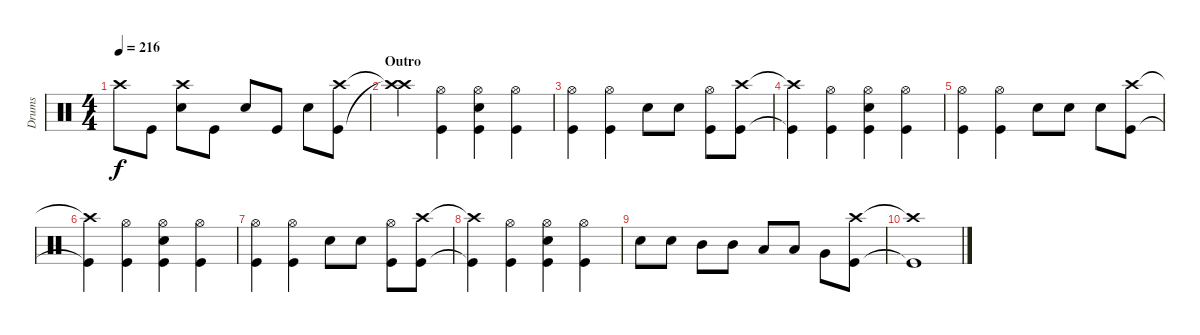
\track ("Drums" "Drums") {instrument percussion}
\staff {score}
\articulation defaults
\ts (4 4)
\tempo 216
\clef neutral
\ks c "Crash high (hit)".8{dy f} "Kick (hit)".8
("Crash high (hit)" "Snare (hit) 2").8 "Kick (hit)".8 "Snare (hit) 2".8 "Kick (hit)".8 "Snare (hit) 2".8 ("Crash high (hit)" "Kick (hit)").8 |
\section ("" "Outro")
("Crash high (hit)"{t} "Crash high (hit)"{t}).4 ("Hi-Hat (open)" "Kick (hit)").4 ("Hi-Hat (open)" "Snare (hit) 2" "Kick (hit)").4 ("Hi-Hat (open)" "Kick (hit)").4 |
("Hi-Hat (open)" "Kick (hit)").4 ("Hi-Hat (open)" "Kick (hit)").4 "Snare (hit) 2".8 "Snare (hit) 2".8 ("Hi-Hat (open)" "Kick (hit)").8 ("Crash high (hit)" "Kick (hit)").8 |
("Crash high (hit)"{t} "Kick (hit)"{t}).4 ("Hi-Hat (open)" "Kick (hit)").4 ("Hi-Hat (open)" "Snare (hit) 2" "Kick (hit)").4 ("Hi-Hat (open)" "Kick (hit)").4 |
("Hi-Hat (open)" "Kick (hit)").4 ("Hi-Hat (open)" "Kick (hit)").4 "Snare (hit) 2".8 "Snare (hit) 2".8 "Snare (hit) 2".8 ("Crash high (hit)" "Kick (hit)").8 |
("Crash high (hit)"{t} "Kick (hit)"{t}).4 ("Hi-Hat (open)" "Kick (hit)").4 ("Hi-Hat (open)" "Snare (hit) 2" "Kick (hit)").4 ("Hi-Hat (open)" "Kick (hit)").4 |
("Hi-Hat (open)" "Kick (hit)").4 ("Hi-Hat (open)" "Kick (hit)").4 "Snare (hit) 2".8 "Snare (hit) 2".8 ("Hi-Hat (open)" "Kick (hit)").8 ("Crash high (hit)" "Kick (hit)").8 |
("Crash high (hit)"{t} "Kick (hit)"{t}).4 ("Hi-Hat (open)" "Kick (hit)").4 ("Hi-Hat (open)" "Snare (hit) 2" "Kick (hit)").4 ("Hi-Hat (open)" "Kick (hit)").4 |
"Snare (hit) 2".8 "Snare (hit) 2".8 "Mid Tom (hit)".8 "Mid Tom (hit)".8 "Low Tom (hit)".8 "Low Tom (hit)".8 "Very Low Tom (hit)".8 ("Crash high (hit)" "Kick (hit)").8 |
("Crash high (hit)"{t} "Kick (hit)"{t}).1
